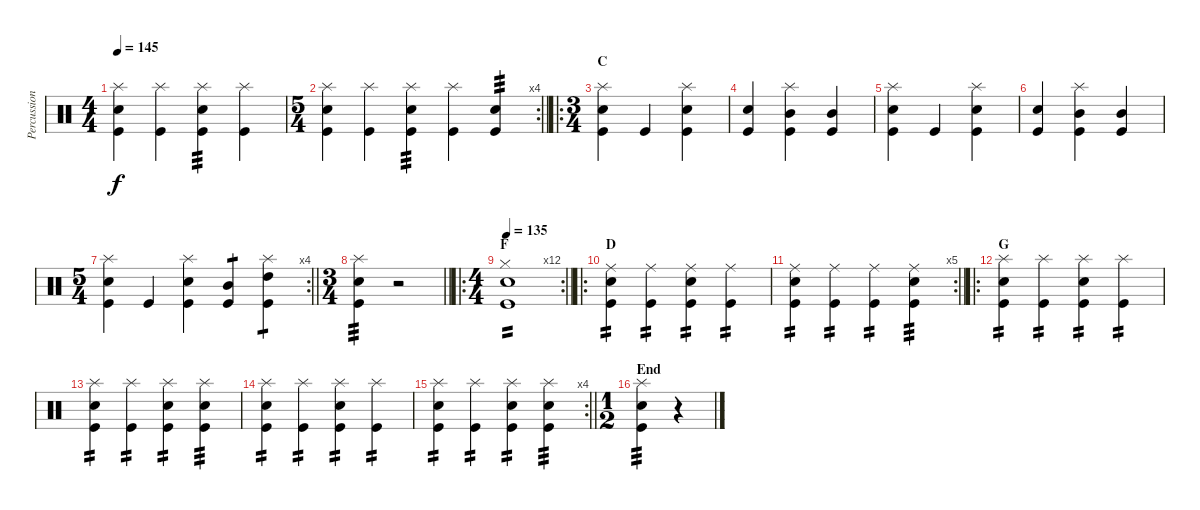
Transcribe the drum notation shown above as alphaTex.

\track ("Percussion" "Percussion") {instrument percussion}
\staff {score}
\articulation defaults
\ts (4 4)
\tempo 145
\clef neutral
\ks c
("Splash (hit)" "Kick (hit)" "Snare (hit) 2").4{dy f} ("Splash (hit)" "Kick (hit)").4 ("Splash (hit)" "Kick (hit)" "Snare (hit) 2").4{tp 3} ("Splash (hit)" "Kick (hit)").4 |
\rc 4
\ts (5 4)
\barLineRight lightlight
("Splash (hit)" "Kick (hit)" "Snare (hit) 2").4 ("Splash (hit)" "Kick (hit)").4 ("Splash (hit)" "Kick (hit)" "Snare (hit) 2").4{tp 3} ("Splash (hit)" "Kick (hit)").4 ("Snare (hit) 2" "Kick (hit)").4{tp 3} |
\ro
\ts (3 4)
\section ("" "C")
("Kick (hit)" "Snare (hit) 2" "Splash (hit)").4 "Kick (hit)".4 ("Kick (hit)" "Snare (hit) 2" "Splash (hit)").4 |
("Snare (hit) 2" "Kick (hit)").4 ("Mid Tom (hit)" "Kick (hit)" "Splash (hit)").4 ("Mid Tom (hit)" "Kick (hit)").4 |
("Kick (hit)" "Snare (hit) 2" "Splash (hit)").4 "Kick (hit)".4 ("Kick (hit)" "Snare (hit) 2" "Splash (hit)").4 |
("Snare (hit) 2" "Kick (hit)").4 ("Mid Tom (hit)" "Kick (hit)" "Splash (hit)").4 ("Mid Tom (hit)" "Kick (hit)").4 |
\rc 4
\ts (5 4)
\barLineRight lightlight
("Kick (hit)" "Snare (hit) 2" "Splash (hit)").4 "Kick (hit)".4 ("Kick (hit)" "Snare (hit) 2" "Splash (hit)").4 ("Kick (hit)" "Mid Tom (hit)").4{tp 1} ("Kick (hit)" "High Tom (hit)" "Splash (hit)").4{tp 1} |
\ts (3 4)
\barLineRight lightlight
("Splash (hit)" "Kick (hit)" "Snare (hit) 2").4{tp 3} r.2 |
\ro
\rc 12
\ts (4 4)
\section ("" "F")
\tempo 135
\barLineRight lightlight
("Kick (hit)" "Snare (hit) 2" "Hi-Hat (closed)").1{tp 2} |
\ro
\section ("" "D")
("Ride (middle)" "Kick (hit)" "Snare (hit) 2").4{tp 2} ("Ride (middle)" "Kick (hit)").4{tp 2} ("Ride (middle)" "Kick (hit)" "Snare (hit) 2").4{tp 2} ("Ride (middle)" "Kick (hit)").4{tp 2} |
\rc 5
\barLineRight lightlight
("Ride (middle)" "Kick (hit)" "Snare (hit) 2").4{tp 2} ("Ride (middle)" "Kick (hit)").4{tp 2} ("Ride (middle)" "Kick (hit)").4{tp 2} ("Ride (middle)" "Kick (hit)" "Snare (hit) 2").4{tp 3} |
\ro
\section ("" "G")
("Kick (hit)" "Splash (hit)" "Snare (hit) 2").4{tp 2} ("Kick (hit)" "Splash (hit)").4{tp 2} ("Kick (hit)" "Splash (hit)" "Snare (hit) 2").4{tp 2} ("Kick (hit)" "Splash (hit)").4{tp 2} |
("Kick (hit)" "Splash (hit)" "Snare (hit) 2").4{tp 2} ("Kick (hit)" "Splash (hit)").4{tp 2} ("Kick (hit)" "Splash (hit)" "Snare (hit) 2").4{tp 2} ("Kick (hit)" "Splash (hit)" "Snare (hit) 2").4{tp 3} |
("Kick (hit)" "Splash (hit)" "Snare (hit) 2").4{tp 2} ("Kick (hit)" "Splash (hit)").4{tp 2} ("Kick (hit)" "Splash (hit)" "Snare (hit) 2").4{tp 2} ("Kick (hit)" "Splash (hit)").4{tp 2} |
\rc 4
\barLineRight lightlight
("Kick (hit)" "Splash (hit)" "Snare (hit) 2").4{tp 2} ("Kick (hit)" "Splash (hit)").4{tp 2} ("Kick (hit)" "Splash (hit)" "Snare (hit) 2").4{tp 2} ("Kick (hit)" "Splash (hit)" "Snare (hit) 2").4{tp 3} |
\ts (1 2)
\section ("" "End")
("Kick (hit)" "Snare (hit) 2" "Splash (hit)").4{tp 3} r.4
